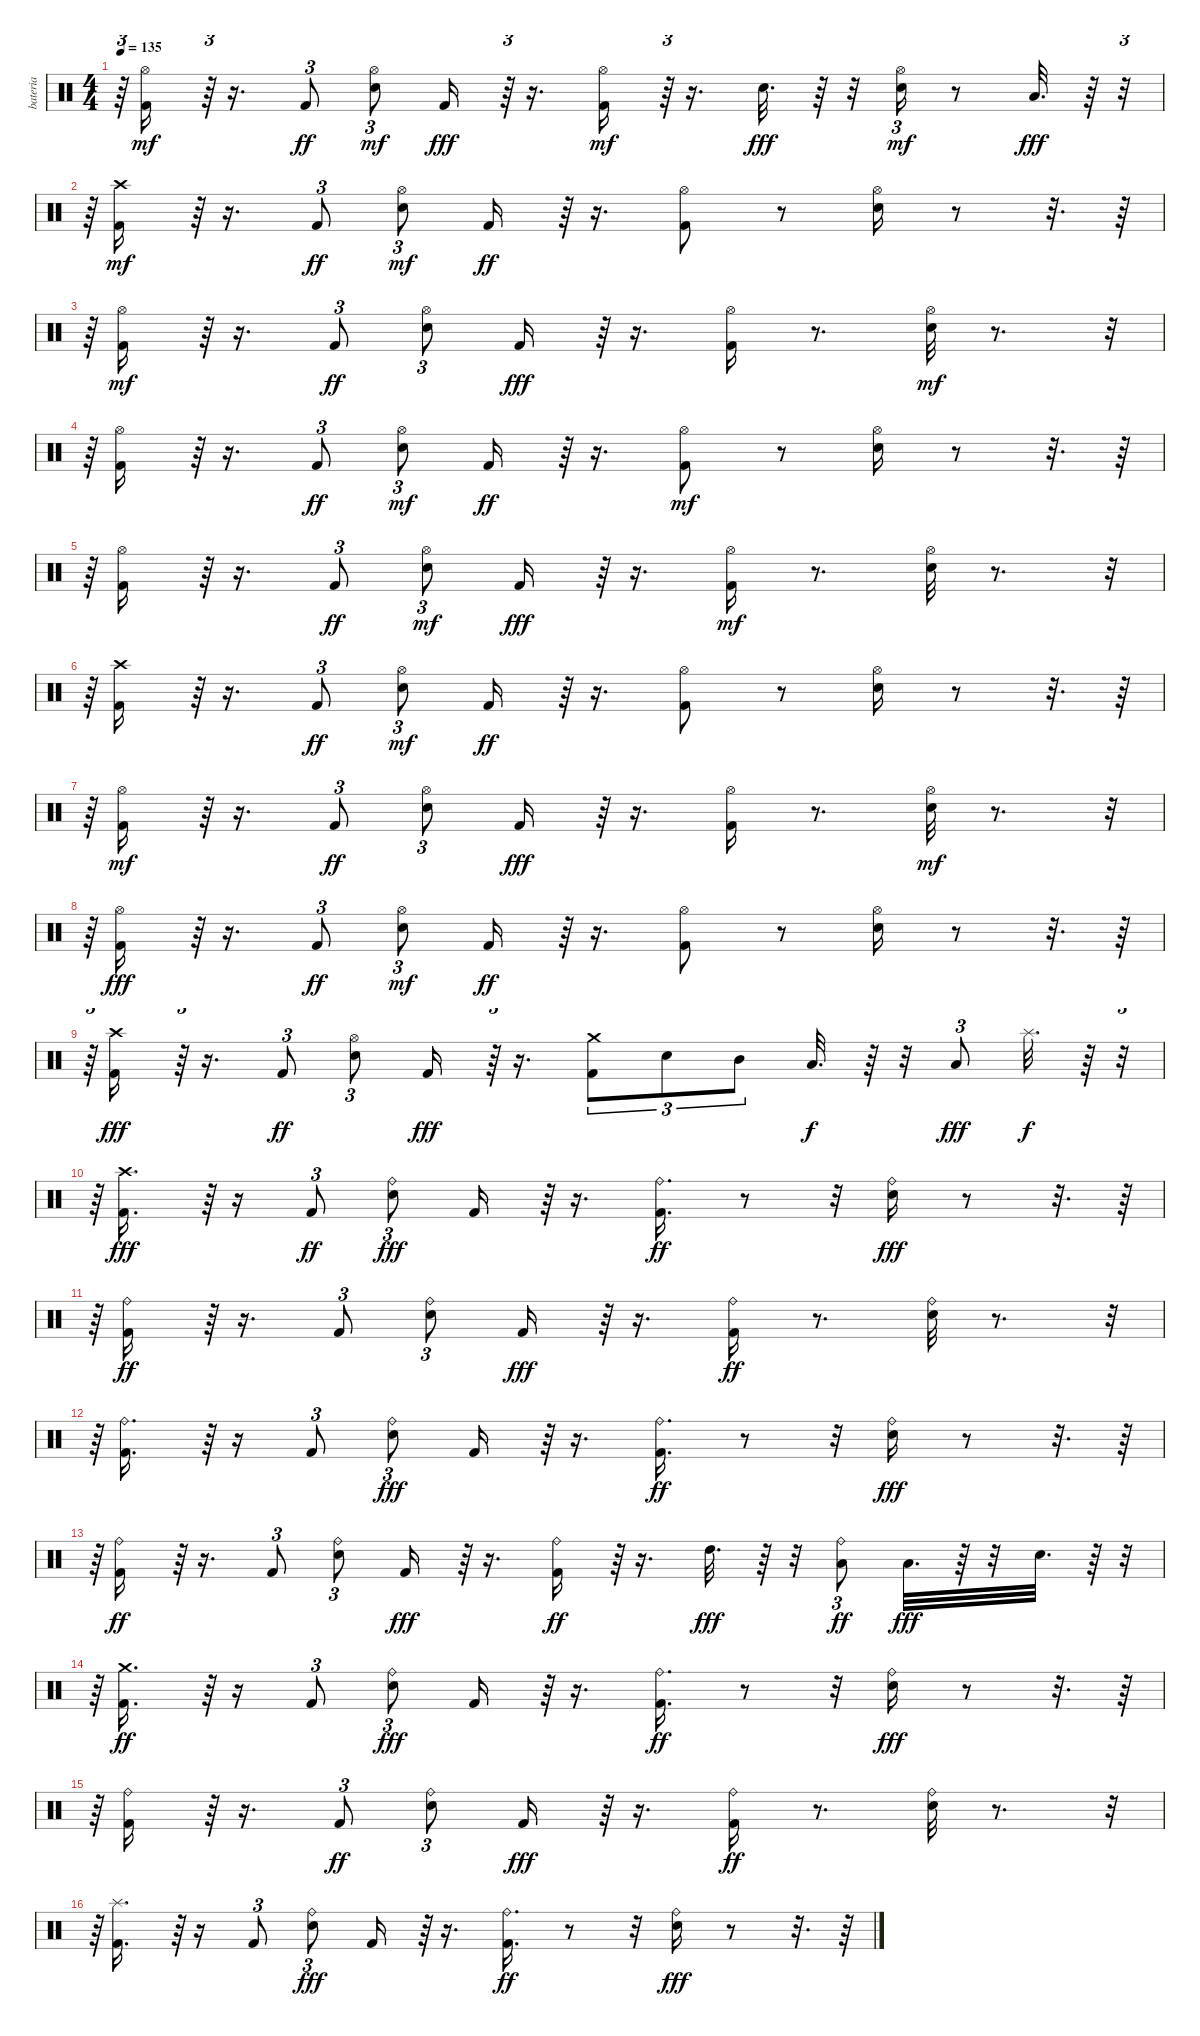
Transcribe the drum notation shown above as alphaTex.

\track ("bateria" "bateria") {instrument percussion}
\staff {score}
\articulation defaults
\ts (4 4)
\tempo 135
\clef neutral
\ks c
r.64{tu (3 2) dy mf} ("Kick (hit) 2" "Hi-Hat (open)").16 r.64{tu (3 2)} r.16{d} "Kick (hit) 2".8{tu (3 2) dy ff} ("Electric Snare (hit)" "Hi-Hat (open)").8{tu (3 2) dy mf} "Kick (hit) 2".16{dy fff} r.64{tu (3 2)} r.16{d} ("Kick (hit) 2" "Hi-Hat (open)").16{dy mf} r.64{tu (3 2)} r.16{d} "Electric Snare (hit)".32{d dy fff} r.64 r.32 ("Electric Snare (hit)" "Hi-Hat (open)").16{tu (3 2) dy mf} r.8 "Low Tom (hit)".32{d dy fff} r.64 r.32{tu (3 2)} |
r.64{tu (3 2)} ("Kick (hit) 2" "Crash high (hit)").16{dy mf} r.64{tu (3 2)} r.16{d} "Kick (hit) 2".8{tu (3 2) dy ff} ("Hi-Hat (open)" "Electric Snare (hit)").8{tu (3 2) dy mf} "Kick (hit) 2".16{dy ff} r.64{tu (3 2)} r.16{d} ("Hi-Hat (open)" "Kick (hit) 2").8 r.8 ("Hi-Hat (open)" "Electric Snare (hit)").16 r.8 r.32{d} r.64 |
r.64{tu (3 2)} ("Kick (hit) 2" "Hi-Hat (open)").16{dy mf} r.64{tu (3 2)} r.16{d} "Kick (hit) 2".8{tu (3 2) dy ff} ("Hi-Hat (open)" "Electric Snare (hit)").8{tu (3 2)} "Kick (hit) 2".16{dy fff} r.64{tu (3 2)} r.16{d} ("Hi-Hat (open)" "Kick (hit) 2").16 r.8{d} ("Electric Snare (hit)" "Hi-Hat (open)").32{dy mf} r.8{d} r.32{tu (3 2)} |
r.64{tu (3 2)} ("Kick (hit) 2" "Hi-Hat (open)").16 r.64{tu (3 2)} r.16{d} "Kick (hit) 2".8{tu (3 2) dy ff} ("Electric Snare (hit)" "Hi-Hat (open)").8{tu (3 2) dy mf} "Kick (hit) 2".16{dy ff} r.64{tu (3 2)} r.16{d} ("Kick (hit) 2" "Hi-Hat (open)").8{dy mf} r.8 ("Electric Snare (hit)" "Hi-Hat (open)").16 r.8 r.32{d} r.64 |
r.64{tu (3 2)} ("Kick (hit) 2" "Hi-Hat (open)").16 r.64{tu (3 2)} r.16{d} "Kick (hit) 2".8{tu (3 2) dy ff} ("Electric Snare (hit)" "Hi-Hat (open)").8{tu (3 2) dy mf} "Kick (hit) 2".16{dy fff} r.64{tu (3 2)} r.16{d} ("Kick (hit) 2" "Hi-Hat (open)").16{dy mf} r.8{d} ("Electric Snare (hit)" "Hi-Hat (open)").32 r.8{d} r.32{tu (3 2)} |
r.64{tu (3 2)} ("Kick (hit) 2" "Crash high (hit)").16 r.64{tu (3 2)} r.16{d} "Kick (hit) 2".8{tu (3 2) dy ff} ("Hi-Hat (open)" "Electric Snare (hit)").8{tu (3 2) dy mf} "Kick (hit) 2".16{dy ff} r.64{tu (3 2)} r.16{d} ("Hi-Hat (open)" "Kick (hit) 2").8 r.8 ("Hi-Hat (open)" "Electric Snare (hit)").16 r.8 r.32{d} r.64 |
r.64{tu (3 2)} ("Kick (hit) 2" "Hi-Hat (open)").16{dy mf} r.64{tu (3 2)} r.16{d} "Kick (hit) 2".8{tu (3 2) dy ff} ("Hi-Hat (open)" "Electric Snare (hit)").8{tu (3 2)} "Kick (hit) 2".16{dy fff} r.64{tu (3 2)} r.16{d} ("Hi-Hat (open)" "Kick (hit) 2").16 r.8{d} ("Electric Snare (hit)" "Hi-Hat (open)").32{dy mf} r.8{d} r.32{tu (3 2)} |
r.64{tu (3 2)} ("Hi-Hat (open)" "Kick (hit) 2").16{dy fff} r.64{tu (3 2)} r.16{d} "Kick (hit) 2".8{tu (3 2) dy ff} ("Hi-Hat (open)" "Electric Snare (hit)").8{tu (3 2) dy mf} "Kick (hit) 2".16{dy ff} r.64{tu (3 2)} r.16{d} ("Hi-Hat (open)" "Kick (hit) 2").8 r.8 ("Hi-Hat (open)" "Electric Snare (hit)").16 r.8 r.32{d} r.64 |
r.64{tu (3 2)} ("Crash high (hit)" "Kick (hit) 2").16{dy fff} r.64{tu (3 2)} r.16{d} "Kick (hit) 2".8{tu (3 2) dy ff} ("Hi-Hat (open)" "Electric Snare (hit)").8{tu (3 2)} "Kick (hit) 2".16{dy fff} r.64{tu (3 2)} r.16{d} ("Crash medium (hit)" "Kick (hit) 2").8{tu (3 2)} "Electric Snare (hit)".8{tu (3 2)} "Mid Tom (hit)".8{tu (3 2)} "Low Tom (hit)".32{d dy f} r.64 r.32 "Low Floor Tom (hit)".8{tu (3 2) dy fff} "Splash (hit)".32{d dy f} r.64 r.32{tu (3 2)} |
r.64{tu (3 2)} ("Crash high (hit)" "Kick (hit) 2").16{d dy fff} r.64{tu (3 2)} r.16 "Kick (hit) 2".8{tu (3 2) dy ff} ("Electric Snare (hit)" "Ride (bell)").8{tu (3 2) dy fff} "Kick (hit) 2".16 r.64{tu (3 2)} r.16{d} ("Kick (hit) 2" "Ride (bell)").16{d dy ff} r.8 r.32 ("Electric Snare (hit)" "Ride (bell)").16{dy fff} r.8 r.32{d} r.64 |
r.64{tu (3 2)} ("Kick (hit) 2" "Ride (bell)").16{dy ff} r.64{tu (3 2)} r.16{d} "Kick (hit) 2".8{tu (3 2)} ("Electric Snare (hit)" "Ride (bell)").8{tu (3 2)} "Kick (hit) 2".16{dy fff} r.64{tu (3 2)} r.16{d} ("Kick (hit) 2" "Ride (bell)").16{dy ff} r.8{d} ("Electric Snare (hit)" "Ride (bell)").32 r.8{d} r.32{tu (3 2)} |
r.64{tu (3 2)} ("Kick (hit) 2" "Ride (bell)").16{d} r.64{tu (3 2)} r.16 "Kick (hit) 2".8{tu (3 2)} ("Electric Snare (hit)" "Ride (bell)").8{tu (3 2) dy fff} "Kick (hit) 2".16 r.64{tu (3 2)} r.16{d} ("Kick (hit) 2" "Ride (bell)").16{d dy ff} r.8 r.32 ("Electric Snare (hit)" "Ride (bell)").16{dy fff} r.8 r.32{d} r.64 |
r.64{tu (3 2)} ("Kick (hit) 2" "Ride (bell)").16{dy ff} r.64{tu (3 2)} r.16{d} "Kick (hit) 2".8{tu (3 2)} ("Electric Snare (hit)" "Ride (bell)").8{tu (3 2)} "Kick (hit) 2".16{dy fff} r.64{tu (3 2)} r.16{d} ("Kick (hit) 2" "Ride (bell)").16{dy ff} r.64{tu (3 2)} r.16{d} "High Tom (hit)".32{d dy fff} r.64 r.32 ("Ride (bell)" "Low Tom (hit)").8{tu (3 2) dy ff} "Low Floor Tom (hit)".32{d dy fff} r.64 r.32 "Electric Snare (hit)".32{d} r.64 r.32{tu (3 2)} |
r.64{tu (3 2)} ("Kick (hit) 2" "Crash medium (hit)").16{d dy ff} r.64{tu (3 2)} r.16 "Kick (hit) 2".8{tu (3 2)} ("Electric Snare (hit)" "Ride (bell)").8{tu (3 2) dy fff} "Kick (hit) 2".16 r.64{tu (3 2)} r.16{d} ("Ride (bell)" "Kick (hit) 2").16{d dy ff} r.8 r.32 ("Electric Snare (hit)" "Ride (bell)").16{dy fff} r.8 r.32{d} r.64 |
r.64{tu (3 2)} ("Ride (bell)" "Kick (hit) 2").16 r.64{tu (3 2)} r.16{d} "Kick (hit) 2".8{tu (3 2) dy ff} ("Electric Snare (hit)" "Ride (bell)").8{tu (3 2)} "Kick (hit) 2".16{dy fff} r.64{tu (3 2)} r.16{d} ("Kick (hit) 2" "Ride (bell)").16{dy ff} r.8{d} ("Electric Snare (hit)" "Ride (bell)").32 r.8{d} r.32{tu (3 2)} |
r.64{tu (3 2)} ("Kick (hit) 2" "Splash (hit)").16{d} r.64{tu (3 2)} r.16 "Kick (hit) 2".8{tu (3 2)} ("Electric Snare (hit)" "Ride (bell)").8{tu (3 2) dy fff} "Kick (hit) 2".16 r.64{tu (3 2)} r.16{d} ("Ride (bell)" "Kick (hit) 2").16{d dy ff} r.8 r.32 ("Electric Snare (hit)" "Ride (bell)").16{dy fff} r.8 r.32{d} r.64
